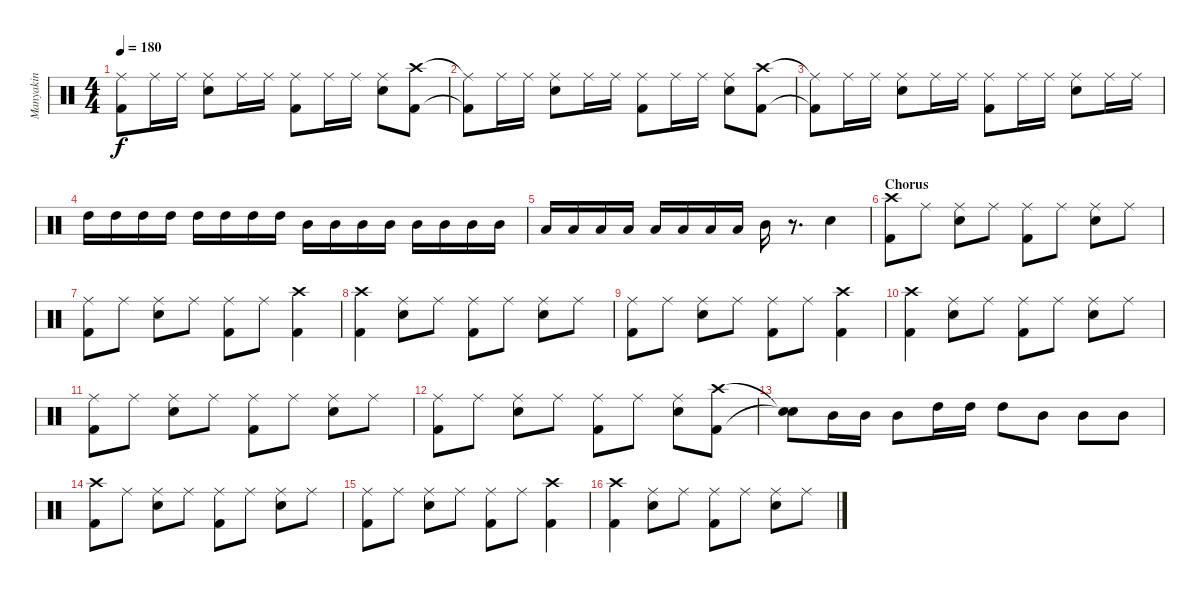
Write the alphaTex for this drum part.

\track ("Manyakin" "Manyakin") {instrument percussion}
\staff {score}
\articulation defaults
\ts (4 4)
\tempo 180
\clef neutral
\ks c
("Kick (hit) 2" "Ride (middle)").8{dy f} "Ride (middle)".16 "Ride (middle)".16 ("Snare (hit) 2" "Ride (middle)").8 "Ride (middle)".16 "Ride (middle)".16 ("Kick (hit) 2" "Ride (middle)").8 "Ride (middle)".16 "Ride (middle)".16 ("Snare (hit) 2" "Ride (middle)").8 ("Kick (hit) 2" "Crash high (hit)").8 |
("Kick (hit) 2"{t} "Ride (middle)"{t}).8 "Ride (middle)".16 "Ride (middle)".16 ("Snare (hit) 2" "Ride (middle)").8 "Ride (middle)".16 "Ride (middle)".16 ("Kick (hit) 2" "Ride (middle)").8 "Ride (middle)".16 "Ride (middle)".16 ("Snare (hit) 2" "Ride (middle)").8 ("Kick (hit) 2" "Crash high (hit)").8 |
("Kick (hit) 2"{t} "Ride (middle)"{t}).8 "Ride (middle)".16 "Ride (middle)".16 ("Snare (hit) 2" "Ride (middle)").8 "Ride (middle)".16 "Ride (middle)".16 ("Kick (hit) 2" "Ride (middle)").8 "Ride (middle)".16 "Ride (middle)".16 ("Snare (hit) 2" "Ride (middle)").8 "Ride (middle)".16 "Ride (middle)".16 |
"High Tom (hit)".16 "High Tom (hit)".16 "High Tom (hit)".16 "High Tom (hit)".16 "High Tom (hit)".16 "High Tom (hit)".16 "High Tom (hit)".16 "High Tom (hit)".16 "Mid Tom (hit)".16 "Mid Tom (hit)".16 "Mid Tom (hit)".16 "Mid Tom (hit)".16 "Mid Tom (hit)".16 "Mid Tom (hit)".16 "Mid Tom (hit)".16 "Mid Tom (hit)".16 |
"Low Tom (hit)".16 "Low Tom (hit)".16 "Low Tom (hit)".16 "Low Tom (hit)".16 "Low Tom (hit)".16 "Low Tom (hit)".16 "Low Tom (hit)".16 "Low Tom (hit)".16 "Mid Tom (hit)".16 r.8{d} "Snare (hit) 2".4 |
\section ("" "Chorus")
("Kick (hit) 2" "Crash high (hit)").8 "Ride (middle)".8 ("Snare (hit) 2" "Ride (middle)").8 "Ride (middle)".8 ("Kick (hit) 2" "Ride (middle)").8 "Ride (middle)".8 ("Snare (hit) 2" "Ride (middle)").8 "Ride (middle)".8 |
("Kick (hit) 2" "Ride (middle)").8 "Ride (middle)".8 ("Snare (hit) 2" "Ride (middle)").8 "Ride (middle)".8 ("Kick (hit) 2" "Ride (middle)").8 "Ride (middle)".8 ("Kick (hit) 2" "Crash high (hit)").4 |
("Kick (hit) 2" "Crash high (hit)").4 ("Snare (hit) 2" "Ride (middle)").8 "Ride (middle)".8 ("Kick (hit) 2" "Ride (middle)").8 "Ride (middle)".8 ("Snare (hit) 2" "Ride (middle)").8 "Ride (middle)".8 |
("Kick (hit) 2" "Ride (middle)").8 "Ride (middle)".8 ("Snare (hit) 2" "Ride (middle)").8 "Ride (middle)".8 ("Kick (hit) 2" "Ride (middle)").8 "Ride (middle)".8 ("Kick (hit) 2" "Crash high (hit)").4 |
("Kick (hit) 2" "Crash high (hit)").4 ("Snare (hit) 2" "Ride (middle)").8 "Ride (middle)".8 ("Kick (hit) 2" "Ride (middle)").8 "Ride (middle)".8 ("Snare (hit) 2" "Ride (middle)").8 "Ride (middle)".8 |
("Kick (hit) 2" "Ride (middle)").8 "Ride (middle)".8 ("Snare (hit) 2" "Ride (middle)").8 "Ride (middle)".8 ("Kick (hit) 2" "Ride (middle)").8 "Ride (middle)".8 ("Snare (hit) 2" "Ride (middle)").8 "Ride (middle)".8 |
("Kick (hit) 2" "Ride (middle)").8 "Ride (middle)".8 ("Snare (hit) 2" "Ride (middle)").8 "Ride (middle)".8 ("Kick (hit) 2" "Ride (middle)").8 "Ride (middle)".8 ("Snare (hit) 2" "Ride (middle)").8 ("Kick (hit) 2" "Crash high (hit)").8 |
("Snare (hit)"{t} "Snare (hit)"{t}).8 "Mid Tom (hit)".16 "Mid Tom (hit)".16 "Mid Tom (hit)".8 "High Tom (hit)".16 "High Tom (hit)".16 "High Tom (hit)".8 "Mid Tom (hit)".8 "Mid Tom (hit)".8 "Mid Tom (hit)".8 |
("Kick (hit) 2" "Crash high (hit)").8 "Ride (middle)".8 ("Snare (hit) 2" "Ride (middle)").8 "Ride (middle)".8 ("Kick (hit) 2" "Ride (middle)").8 "Ride (middle)".8 ("Snare (hit) 2" "Ride (middle)").8 "Ride (middle)".8 |
("Kick (hit) 2" "Ride (middle)").8 "Ride (middle)".8 ("Snare (hit) 2" "Ride (middle)").8 "Ride (middle)".8 ("Kick (hit) 2" "Ride (middle)").8 "Ride (middle)".8 ("Kick (hit) 2" "Crash high (hit)").4 |
("Kick (hit) 2" "Crash high (hit)").4 ("Snare (hit) 2" "Ride (middle)").8 "Ride (middle)".8 ("Kick (hit) 2" "Ride (middle)").8 "Ride (middle)".8 ("Snare (hit) 2" "Ride (middle)").8 "Ride (middle)".8
